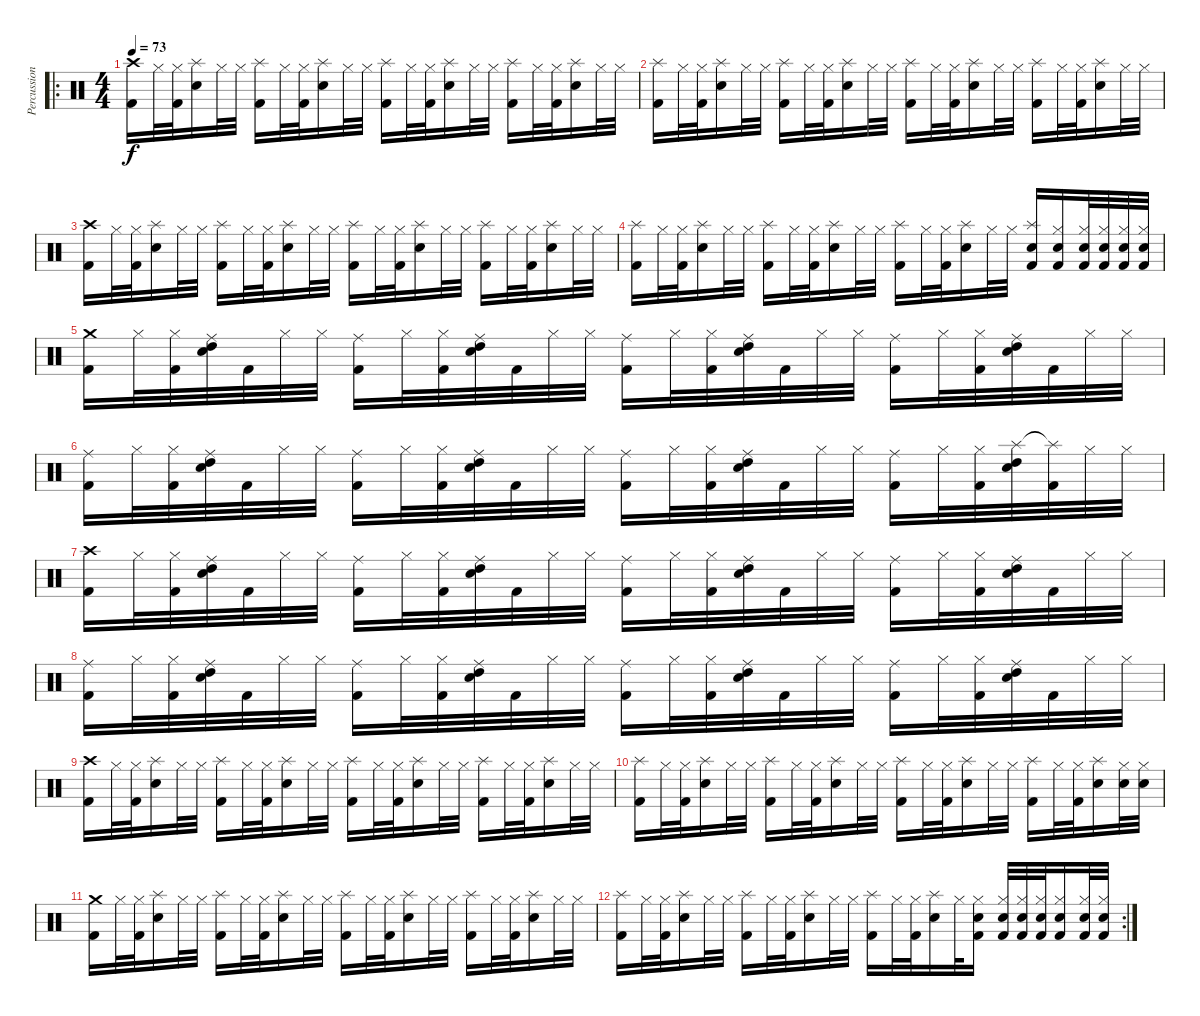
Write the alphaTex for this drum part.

\track ("Percussion" "Percussion") {instrument percussion}
\staff {score}
\articulation defaults
\ro
\ts (4 4)
\tempo 73
\clef neutral
\ks c
("Crash high (hit)" "Kick (hit) 2").16{dy f} "Hi-Hat (closed)".32 ("Hi-Hat (closed)" "Kick (hit) 2").32 ("Splash (hit)" "Electric Snare (hit)").16 "Hi-Hat (closed)".32 "Hi-Hat (closed)".32 ("Splash (hit)" "Kick (hit) 2").16 "Hi-Hat (closed)".32 ("Hi-Hat (closed)" "Kick (hit) 2").32 ("Splash (hit)" "Electric Snare (hit)").16 "Hi-Hat (closed)".32 "Hi-Hat (closed)".32 ("Splash (hit)" "Kick (hit) 2").16 "Hi-Hat (closed)".32 ("Hi-Hat (closed)" "Kick (hit) 2").32 ("Splash (hit)" "Electric Snare (hit)").16 "Hi-Hat (closed)".32 "Hi-Hat (closed)".32 ("Splash (hit)" "Kick (hit) 2").16 "Hi-Hat (closed)".32 ("Hi-Hat (closed)" "Kick (hit) 2").32 ("Splash (hit)" "Electric Snare (hit)").16 "Hi-Hat (closed)".32 "Hi-Hat (closed)".32 |
("Splash (hit)" "Kick (hit) 2").16 "Hi-Hat (closed)".32 ("Hi-Hat (closed)" "Kick (hit) 2").32 ("Splash (hit)" "Electric Snare (hit)").16 "Hi-Hat (closed)".32 "Hi-Hat (closed)".32 ("Splash (hit)" "Kick (hit) 2").16 "Hi-Hat (closed)".32 ("Hi-Hat (closed)" "Kick (hit) 2").32 ("Splash (hit)" "Electric Snare (hit)").16 "Hi-Hat (closed)".32 "Hi-Hat (closed)".32 ("Splash (hit)" "Kick (hit) 2").16 "Hi-Hat (closed)".32 ("Hi-Hat (closed)" "Kick (hit) 2").32 ("Splash (hit)" "Electric Snare (hit)").16 "Hi-Hat (closed)".32 "Hi-Hat (closed)".32 ("Splash (hit)" "Kick (hit) 2").16 "Hi-Hat (closed)".32 ("Hi-Hat (closed)" "Kick (hit) 2").32 ("Splash (hit)" "Electric Snare (hit)").16 "Hi-Hat (closed)".32 "Hi-Hat (closed)".32 |
("Crash high (hit)" "Kick (hit) 2").16 "Hi-Hat (closed)".32 ("Hi-Hat (closed)" "Kick (hit) 2").32 ("Splash (hit)" "Electric Snare (hit)").16 "Hi-Hat (closed)".32 "Hi-Hat (closed)".32 ("Splash (hit)" "Kick (hit) 2").16 "Hi-Hat (closed)".32 ("Hi-Hat (closed)" "Kick (hit) 2").32 ("Splash (hit)" "Electric Snare (hit)").16 "Hi-Hat (closed)".32 "Hi-Hat (closed)".32 ("Splash (hit)" "Kick (hit) 2").16 "Hi-Hat (closed)".32 ("Hi-Hat (closed)" "Kick (hit) 2").32 ("Splash (hit)" "Electric Snare (hit)").16 "Hi-Hat (closed)".32 "Hi-Hat (closed)".32 ("Splash (hit)" "Kick (hit) 2").16 "Hi-Hat (closed)".32 ("Hi-Hat (closed)" "Kick (hit) 2").32 ("Splash (hit)" "Electric Snare (hit)").16 "Hi-Hat (closed)".32 "Hi-Hat (closed)".32 |
("Splash (hit)" "Kick (hit) 2").16 "Hi-Hat (closed)".32 ("Hi-Hat (closed)" "Kick (hit) 2").32 ("Splash (hit)" "Electric Snare (hit)").16 "Hi-Hat (closed)".32 "Hi-Hat (closed)".32 ("Splash (hit)" "Kick (hit) 2").16 "Hi-Hat (closed)".32 ("Hi-Hat (closed)" "Kick (hit) 2").32 ("Splash (hit)" "Electric Snare (hit)").16 "Hi-Hat (closed)".32 "Hi-Hat (closed)".32 ("Splash (hit)" "Kick (hit) 2").16 "Hi-Hat (closed)".32 ("Hi-Hat (closed)" "Kick (hit) 2").32 ("Splash (hit)" "Electric Snare (hit)").16 "Hi-Hat (closed)".32 "Hi-Hat (closed)".32 ("Splash (hit)" "Electric Snare (hit)" "Kick (hit) 2").16 ("Hi-Hat (closed)" "Electric Snare (hit)" "Kick (hit) 2").16 ("Hi-Hat (closed)" "Electric Snare (hit)" "Kick (hit) 2").32 ("Hi-Hat (closed)" "Electric Snare (hit)" "Kick (hit) 2").32 ("Hi-Hat (closed)" "Electric Snare (hit)" "Kick (hit) 2").32 ("Hi-Hat (closed)" "Electric Snare (hit)" "Kick (hit) 2").32 |
("Crash medium (hit)" "Kick (hit) 2").16 "Hi-Hat (closed)".32 ("Hi-Hat (closed)" "Kick (hit) 2").32 ("Ride (middle)" "High Tom (hit)" "Electric Snare (hit)").32 "Kick (hit) 2".32 "Hi-Hat (closed)".32 "Hi-Hat (closed)".32 ("Ride (middle)" "Kick (hit) 2").16 "Hi-Hat (closed)".32 ("Hi-Hat (closed)" "Kick (hit) 2").32 ("Ride (middle)" "High Tom (hit)" "Electric Snare (hit)").32 "Kick (hit) 2".32 "Hi-Hat (closed)".32 "Hi-Hat (closed)".32 ("Ride (middle)" "Kick (hit) 2").16 "Hi-Hat (closed)".32 ("Hi-Hat (closed)" "Kick (hit) 2").32 ("Ride (middle)" "High Tom (hit)" "Electric Snare (hit)").32 "Kick (hit) 2".32 "Hi-Hat (closed)".32 "Hi-Hat (closed)".32 ("Ride (middle)" "Kick (hit) 2").16 "Hi-Hat (closed)".32 ("Hi-Hat (closed)" "Kick (hit) 2").32 ("Ride (middle)" "High Tom (hit)" "Electric Snare (hit)").32 "Kick (hit) 2".32 "Hi-Hat (closed)".32 "Hi-Hat (closed)".32 |
("Ride (middle)" "Kick (hit) 2").16 "Hi-Hat (closed)".32 ("Hi-Hat (closed)" "Kick (hit) 2").32 ("Ride (middle)" "High Tom (hit)" "Electric Snare (hit)").32 "Kick (hit) 2".32 "Hi-Hat (closed)".32 "Hi-Hat (closed)".32 ("Ride (middle)" "Kick (hit) 2").16 "Hi-Hat (closed)".32 ("Hi-Hat (closed)" "Kick (hit) 2").32 ("Ride (middle)" "High Tom (hit)" "Electric Snare (hit)").32 "Kick (hit) 2".32 "Hi-Hat (closed)".32 "Hi-Hat (closed)".32 ("Ride (middle)" "Kick (hit) 2").16 "Hi-Hat (closed)".32 ("Hi-Hat (closed)" "Kick (hit) 2").32 ("Ride (middle)" "High Tom (hit)" "Electric Snare (hit)").32 "Kick (hit) 2".32 "Hi-Hat (closed)".32 "Hi-Hat (closed)".32 ("Ride (middle)" "Kick (hit) 2").16 "Hi-Hat (closed)".32 ("Hi-Hat (closed)" "Kick (hit) 2").32 ("Splash (hit)" "High Tom (hit)" "Electric Snare (hit)").32 ("Splash (hit)"{t} "Kick (hit) 2").32 "Hi-Hat (closed)".32 "Hi-Hat (closed)".32 |
("Crash high (hit)" "Kick (hit) 2").16 "Hi-Hat (closed)".32 ("Hi-Hat (closed)" "Kick (hit) 2").32 ("Ride (middle)" "High Tom (hit)" "Electric Snare (hit)").32 "Kick (hit) 2".32 "Hi-Hat (closed)".32 "Hi-Hat (closed)".32 ("Ride (middle)" "Kick (hit) 2").16 "Hi-Hat (closed)".32 ("Hi-Hat (closed)" "Kick (hit) 2").32 ("Ride (middle)" "High Tom (hit)" "Electric Snare (hit)").32 "Kick (hit) 2".32 "Hi-Hat (closed)".32 "Hi-Hat (closed)".32 ("Ride (middle)" "Kick (hit) 2").16 "Hi-Hat (closed)".32 ("Hi-Hat (closed)" "Kick (hit) 2").32 ("Ride (middle)" "High Tom (hit)" "Electric Snare (hit)").32 "Kick (hit) 2".32 "Hi-Hat (closed)".32 "Hi-Hat (closed)".32 ("Ride (middle)" "Kick (hit) 2").16 "Hi-Hat (closed)".32 ("Hi-Hat (closed)" "Kick (hit) 2").32 ("Ride (middle)" "High Tom (hit)" "Electric Snare (hit)").32 "Kick (hit) 2".32 "Hi-Hat (closed)".32 "Hi-Hat (closed)".32 |
("Ride (middle)" "Kick (hit) 2").16 "Hi-Hat (closed)".32 ("Hi-Hat (closed)" "Kick (hit) 2").32 ("Ride (middle)" "High Tom (hit)" "Electric Snare (hit)").32 "Kick (hit) 2".32 "Hi-Hat (closed)".32 "Hi-Hat (closed)".32 ("Ride (middle)" "Kick (hit) 2").16 "Hi-Hat (closed)".32 ("Hi-Hat (closed)" "Kick (hit) 2").32 ("Ride (middle)" "High Tom (hit)" "Electric Snare (hit)").32 "Kick (hit) 2".32 "Hi-Hat (closed)".32 "Hi-Hat (closed)".32 ("Ride (middle)" "Kick (hit) 2").16 "Hi-Hat (closed)".32 ("Hi-Hat (closed)" "Kick (hit) 2").32 ("Ride (middle)" "High Tom (hit)" "Electric Snare (hit)").32 "Kick (hit) 2".32 "Hi-Hat (closed)".32 "Hi-Hat (closed)".32 ("Ride (middle)" "Kick (hit) 2").16 "Hi-Hat (closed)".32 ("Hi-Hat (closed)" "Kick (hit) 2").32 ("Ride (middle)" "High Tom (hit)" "Electric Snare (hit)").32 "Kick (hit) 2".32 "Hi-Hat (closed)".32 "Hi-Hat (closed)".32 |
("Crash high (hit)" "Kick (hit) 2").16 "Hi-Hat (closed)".32 ("Hi-Hat (closed)" "Kick (hit) 2").32 ("Splash (hit)" "Electric Snare (hit)").16 "Hi-Hat (closed)".32 "Hi-Hat (closed)".32 ("Splash (hit)" "Kick (hit) 2").16 "Hi-Hat (closed)".32 ("Hi-Hat (closed)" "Kick (hit) 2").32 ("Splash (hit)" "Electric Snare (hit)").16 "Hi-Hat (closed)".32 "Hi-Hat (closed)".32 ("Splash (hit)" "Kick (hit) 2").16 "Hi-Hat (closed)".32 ("Hi-Hat (closed)" "Kick (hit) 2").32 ("Splash (hit)" "Electric Snare (hit)").16 "Hi-Hat (closed)".32 "Hi-Hat (closed)".32 ("Splash (hit)" "Kick (hit) 2").16 "Hi-Hat (closed)".32 ("Hi-Hat (closed)" "Kick (hit) 2").32 ("Splash (hit)" "Electric Snare (hit)").16 "Hi-Hat (closed)".32 "Hi-Hat (closed)".32 |
("Splash (hit)" "Kick (hit) 2").16 "Hi-Hat (closed)".32 ("Hi-Hat (closed)" "Kick (hit) 2").32 ("Splash (hit)" "Electric Snare (hit)").16 "Hi-Hat (closed)".32 "Hi-Hat (closed)".32 ("Splash (hit)" "Kick (hit) 2").16 "Hi-Hat (closed)".32 ("Hi-Hat (closed)" "Kick (hit) 2").32 ("Splash (hit)" "Electric Snare (hit)").16 "Hi-Hat (closed)".32 "Hi-Hat (closed)".32 ("Splash (hit)" "Kick (hit) 2").16 "Hi-Hat (closed)".32 ("Hi-Hat (closed)" "Kick (hit) 2").32 ("Splash (hit)" "Electric Snare (hit)").16 "Hi-Hat (closed)".32 "Hi-Hat (closed)".32 ("Splash (hit)" "Kick (hit) 2").16 "Hi-Hat (closed)".32 ("Hi-Hat (closed)" "Kick (hit) 2").32 ("Splash (hit)" "Electric Snare (hit)").16 ("Hi-Hat (closed)" "Electric Snare (hit)").32 ("Hi-Hat (closed)" "Electric Snare (hit)").32 |
("Crash medium (hit)" "Kick (hit) 2").16 "Hi-Hat (closed)".32 ("Hi-Hat (closed)" "Kick (hit) 2").32 ("Splash (hit)" "Electric Snare (hit)").16 "Hi-Hat (closed)".32 "Hi-Hat (closed)".32 ("Splash (hit)" "Kick (hit) 2").16 "Hi-Hat (closed)".32 ("Hi-Hat (closed)" "Kick (hit) 2").32 ("Splash (hit)" "Electric Snare (hit)").16 "Hi-Hat (closed)".32 "Hi-Hat (closed)".32 ("Splash (hit)" "Kick (hit) 2").16 "Hi-Hat (closed)".32 ("Hi-Hat (closed)" "Kick (hit) 2").32 ("Splash (hit)" "Electric Snare (hit)").16 "Hi-Hat (closed)".32 "Hi-Hat (closed)".32 ("Splash (hit)" "Kick (hit) 2").16 "Hi-Hat (closed)".32 ("Hi-Hat (closed)" "Kick (hit) 2").32 ("Splash (hit)" "Electric Snare (hit)").16 "Hi-Hat (closed)".32 "Hi-Hat (closed)".32 |
\rc 2
("Splash (hit)" "Kick (hit) 2").16 "Hi-Hat (closed)".32 ("Hi-Hat (closed)" "Kick (hit) 2").32 ("Splash (hit)" "Electric Snare (hit)").16 "Hi-Hat (closed)".32 "Hi-Hat (closed)".32 ("Splash (hit)" "Kick (hit) 2").16 "Hi-Hat (closed)".32 ("Hi-Hat (closed)" "Kick (hit) 2").32 ("Splash (hit)" "Electric Snare (hit)").16 "Hi-Hat (closed)".32 "Hi-Hat (closed)".32 ("Splash (hit)" "Kick (hit) 2").16 "Hi-Hat (closed)".32 ("Hi-Hat (closed)" "Kick (hit) 2").32 ("Splash (hit)" "Electric Snare (hit)").16 "Hi-Hat (closed)".32 ("Hi-Hat (closed)" "Electric Snare (hit)" "Kick (hit) 2").16 ("Hi-Hat (closed)" "Electric Snare (hit)" "Kick (hit) 2").32 ("Hi-Hat (closed)" "Electric Snare (hit)" "Kick (hit) 2").32 ("Hi-Hat (closed)" "Electric Snare (hit)" "Kick (hit) 2").32 ("Hi-Hat (closed)" "Electric Snare (hit)" "Kick (hit) 2").16 ("Hi-Hat (closed)" "Electric Snare (hit)" "Kick (hit) 2").32 ("Hi-Hat (closed)" "Electric Snare (hit)" "Kick (hit) 2").32
